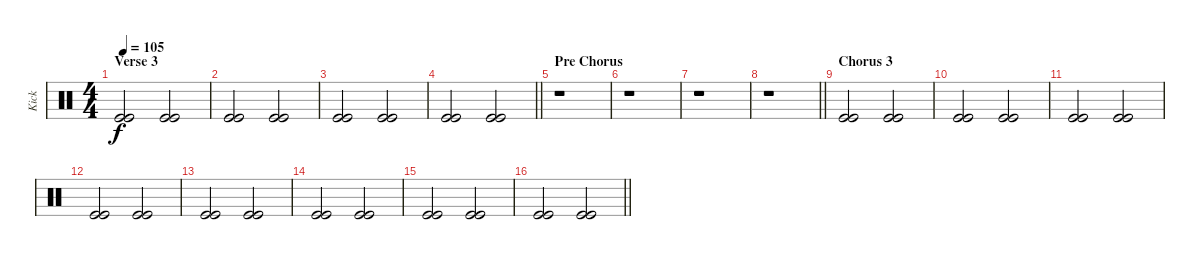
\track ("Kick" "Kick") {instrument percussion}
\staff {score}
\articulation defaults
\ts (4 4)
\section ("" "Verse 3")
\tempo 105
\clef neutral
\ks c
("Kick (hit)" "Kick (hit)").2{dy f beam merge} ("Kick (hit)" "Kick (hit)").2 |
("Kick (hit)" "Kick (hit)").2{beam merge} ("Kick (hit)" "Kick (hit)").2 |
("Kick (hit)" "Kick (hit)").2{beam merge} ("Kick (hit)" "Kick (hit)").2 |
\barLineRight lightlight
("Kick (hit)" "Kick (hit)").2 ("Kick (hit)" "Kick (hit)").2 |
\section ("" "Pre Chorus")
r.1 |
r.1 |
r.1 |
\barLineRight lightlight
r.1 |
\section ("" "Chorus 3")
("Kick (hit)" "Kick (hit)").2 ("Kick (hit)" "Kick (hit)").2 |
("Kick (hit)" "Kick (hit)").2 ("Kick (hit)" "Kick (hit)").2 |
("Kick (hit)" "Kick (hit)").2 ("Kick (hit)" "Kick (hit)").2 |
("Kick (hit)" "Kick (hit)").2{beam merge} ("Kick (hit)" "Kick (hit)").2 |
("Kick (hit)" "Kick (hit)").2 ("Kick (hit)" "Kick (hit)").2 |
("Kick (hit)" "Kick (hit)").2{beam merge} ("Kick (hit)" "Kick (hit)").2 |
("Kick (hit)" "Kick (hit)").2 ("Kick (hit)" "Kick (hit)").2 |
\barLineRight lightlight
("Kick (hit)" "Kick (hit)").2{beam merge} ("Kick (hit)" "Kick (hit)").2
